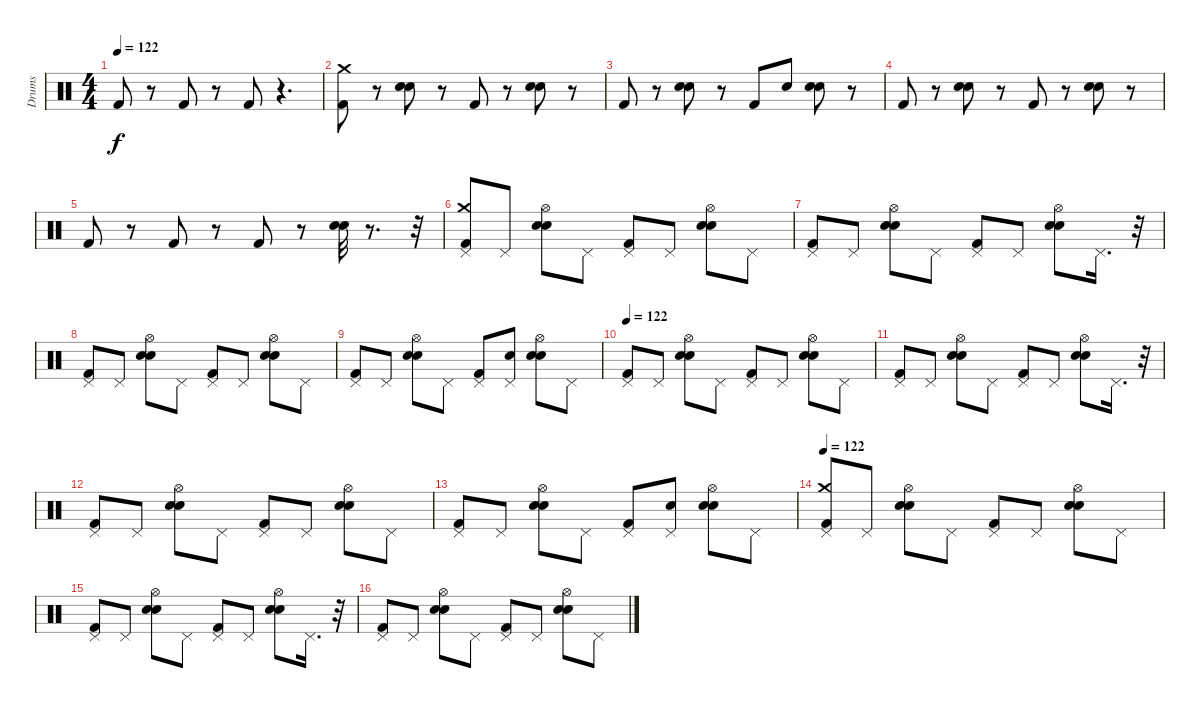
\track ("Drums" "Drums") {instrument percussion}
\staff {score}
\articulation defaults
\ts (4 4)
\tempo 122
\clef neutral
\ks c "Kick (hit) 2".8{dy f}
r.8 "Kick (hit) 2".8 r.8 "Kick (hit) 2".8 r.4{d} |
("Crash medium (hit)" "Kick (hit) 2").8 r.8 ("Snare (hit) 2" "Hand Clap (hit)").8 r.8 "Kick (hit) 2".8 r.8 ("Hand Clap (hit)" "Snare (hit) 2").8 r.8 |
"Kick (hit) 2".8 r.8 ("Hand Clap (hit)" "Snare (hit) 2").8 r.8 "Kick (hit) 2".8 "Hand Clap (hit)".8 ("Hand Clap (hit)" "Snare (hit) 2").8 r.8 |
"Kick (hit) 2".8 r.8 ("Hand Clap (hit)" "Snare (hit) 2").8 r.8 "Kick (hit) 2".8 r.8 ("Hand Clap (hit)" "Snare (hit) 2").8 r.8 |
"Kick (hit) 2".8 r.8 "Kick (hit) 2".8 r.8 "Kick (hit) 2".8 r.8 ("Hand Clap (hit)" "Hand Clap (hit)").32 r.8{d} r.32 |
("Pedal Hi-Hat (hit)" "Kick (hit) 2" "Crash medium (hit)").8 "Pedal Hi-Hat (hit)".8 ("Hi-Hat (open)" "Hand Clap (hit)" "Snare (hit) 2").8 "Pedal Hi-Hat (hit)".8 ("Pedal Hi-Hat (hit)" "Kick (hit) 2").8 "Pedal Hi-Hat (hit)".8 ("Hi-Hat (open)" "Hand Clap (hit)" "Snare (hit) 2").8 "Pedal Hi-Hat (hit)".8 |
("Pedal Hi-Hat (hit)" "Kick (hit) 2").8 "Pedal Hi-Hat (hit)".8 ("Hand Clap (hit)" "Hi-Hat (open)" "Snare (hit) 2").8 "Pedal Hi-Hat (hit)".8 ("Pedal Hi-Hat (hit)" "Kick (hit) 2").8 "Pedal Hi-Hat (hit)".8 ("Hand Clap (hit)" "Hi-Hat (open)" "Snare (hit) 2").8 "Pedal Hi-Hat (hit)".16{d} r.32 |
("Kick (hit) 2" "Pedal Hi-Hat (hit)").8 "Pedal Hi-Hat (hit)".8 ("Hand Clap (hit)" "Snare (hit) 2" "Hi-Hat (open)").8 "Pedal Hi-Hat (hit)".8 ("Kick (hit) 2" "Pedal Hi-Hat (hit)").8 "Pedal Hi-Hat (hit)".8 ("Hand Clap (hit)" "Snare (hit) 2" "Hi-Hat (open)").8 "Pedal Hi-Hat (hit)".8 |
("Pedal Hi-Hat (hit)" "Kick (hit) 2").8 "Pedal Hi-Hat (hit)".8 ("Hi-Hat (open)" "Snare (hit) 2" "Hand Clap (hit)").8 "Pedal Hi-Hat (hit)".8 ("Pedal Hi-Hat (hit)" "Kick (hit) 2").8 ("Pedal Hi-Hat (hit)" "Hand Clap (hit)").8 ("Hi-Hat (open)" "Snare (hit) 2" "Hand Clap (hit)").8 "Pedal Hi-Hat (hit)".8 |
\tempo 122
("Pedal Hi-Hat (hit)" "Kick (hit) 2").8 "Pedal Hi-Hat (hit)".8 ("Hi-Hat (open)" "Hand Clap (hit)" "Snare (hit) 2").8 "Pedal Hi-Hat (hit)".8 ("Pedal Hi-Hat (hit)" "Kick (hit) 2").8 "Pedal Hi-Hat (hit)".8 ("Hi-Hat (open)" "Hand Clap (hit)" "Snare (hit) 2").8 "Pedal Hi-Hat (hit)".8 |
("Pedal Hi-Hat (hit)" "Kick (hit) 2").8 "Pedal Hi-Hat (hit)".8 ("Hand Clap (hit)" "Hi-Hat (open)" "Snare (hit) 2").8 "Pedal Hi-Hat (hit)".8 ("Pedal Hi-Hat (hit)" "Kick (hit) 2").8 "Pedal Hi-Hat (hit)".8 ("Hand Clap (hit)" "Hi-Hat (open)" "Snare (hit) 2").8 "Pedal Hi-Hat (hit)".16{d} r.32 |
("Kick (hit) 2" "Pedal Hi-Hat (hit)").8 "Pedal Hi-Hat (hit)".8 ("Hand Clap (hit)" "Snare (hit) 2" "Hi-Hat (open)").8 "Pedal Hi-Hat (hit)".8 ("Kick (hit) 2" "Pedal Hi-Hat (hit)").8 "Pedal Hi-Hat (hit)".8 ("Hand Clap (hit)" "Snare (hit) 2" "Hi-Hat (open)").8 "Pedal Hi-Hat (hit)".8 |
("Pedal Hi-Hat (hit)" "Kick (hit) 2").8 "Pedal Hi-Hat (hit)".8 ("Hi-Hat (open)" "Snare (hit) 2" "Hand Clap (hit)").8 "Pedal Hi-Hat (hit)".8 ("Pedal Hi-Hat (hit)" "Kick (hit) 2").8 ("Pedal Hi-Hat (hit)" "Hand Clap (hit)").8 ("Hi-Hat (open)" "Snare (hit) 2" "Hand Clap (hit)").8 "Pedal Hi-Hat (hit)".8 |
\tempo 122
("Pedal Hi-Hat (hit)" "Kick (hit) 2" "Crash medium (hit)").8 "Pedal Hi-Hat (hit)".8 ("Hi-Hat (open)" "Hand Clap (hit)" "Snare (hit) 2").8 "Pedal Hi-Hat (hit)".8 ("Pedal Hi-Hat (hit)" "Kick (hit) 2").8 "Pedal Hi-Hat (hit)".8 ("Hi-Hat (open)" "Hand Clap (hit)" "Snare (hit) 2").8 "Pedal Hi-Hat (hit)".8 |
("Pedal Hi-Hat (hit)" "Kick (hit) 2").8 "Pedal Hi-Hat (hit)".8 ("Hand Clap (hit)" "Hi-Hat (open)" "Snare (hit) 2").8 "Pedal Hi-Hat (hit)".8 ("Pedal Hi-Hat (hit)" "Kick (hit) 2").8 "Pedal Hi-Hat (hit)".8 ("Hand Clap (hit)" "Hi-Hat (open)" "Snare (hit) 2").8 "Pedal Hi-Hat (hit)".16{d} r.32 |
("Kick (hit) 2" "Pedal Hi-Hat (hit)").8 "Pedal Hi-Hat (hit)".8 ("Hand Clap (hit)" "Snare (hit) 2" "Hi-Hat (open)").8 "Pedal Hi-Hat (hit)".8 ("Kick (hit) 2" "Pedal Hi-Hat (hit)").8 "Pedal Hi-Hat (hit)".8 ("Hand Clap (hit)" "Snare (hit) 2" "Hi-Hat (open)").8 "Pedal Hi-Hat (hit)".8
